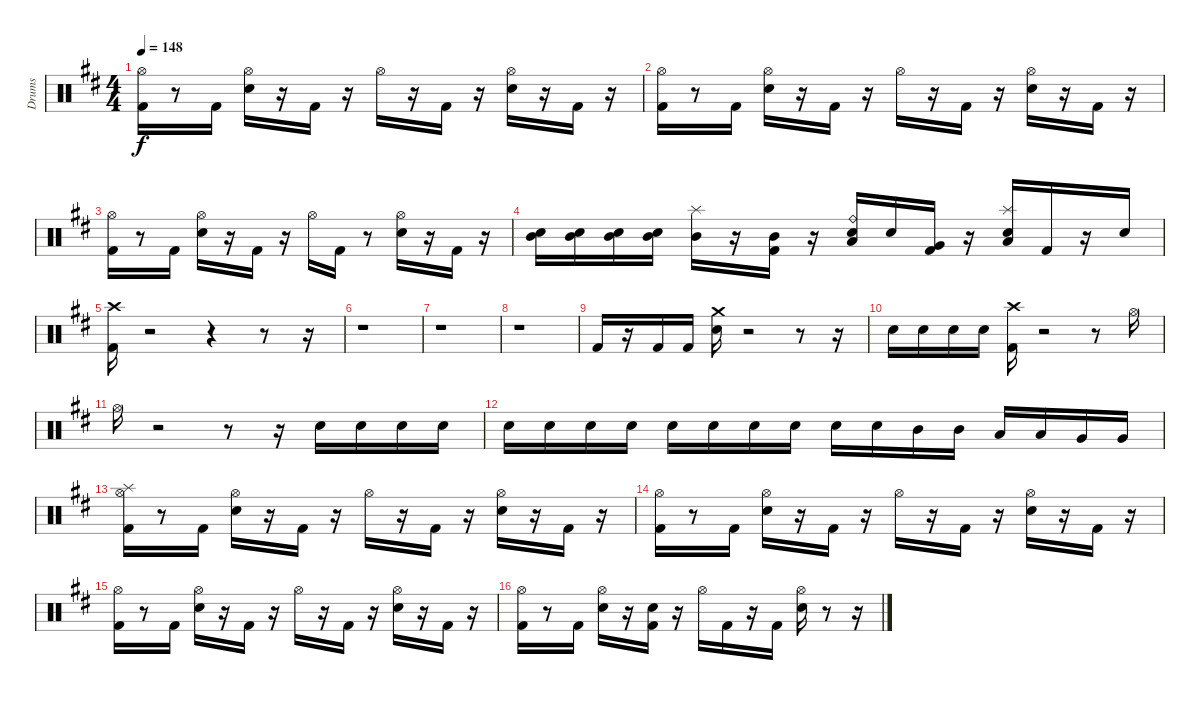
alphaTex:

\track ("Drums" "Drums") {instrument percussion}
\staff {score}
\articulation defaults
\ts (4 4)
\tempo 148
\clef neutral
\ks d
("Hi-Hat (open)" "Kick (hit) 2").16{dy f} r.8 "Kick (hit) 2".16 ("Hi-Hat (open)" "Snare (hit) 2").16 r.16 "Kick (hit) 2".16 r.16 "Hi-Hat (open)".16 r.16 "Kick (hit) 2".16 r.16 ("Hi-Hat (open)" "Snare (hit) 2").16 r.16 "Kick (hit) 2".16 r.16 |
("Hi-Hat (open)" "Kick (hit) 2").16 r.8 "Kick (hit) 2".16 ("Hi-Hat (open)" "Snare (hit) 2").16 r.16 "Kick (hit) 2".16 r.16 "Hi-Hat (open)".16 r.16 "Kick (hit) 2".16 r.16 ("Hi-Hat (open)" "Snare (hit) 2").16 r.16 "Kick (hit) 2".16 r.16 |
("Hi-Hat (open)" "Kick (hit) 2").16 r.8 "Kick (hit) 2".16 ("Hi-Hat (open)" "Snare (hit) 2").16 r.16 "Kick (hit) 2".16 r.16 "Hi-Hat (open)".16 "Kick (hit) 2".16 r.8 ("Hi-Hat (open)" "Snare (hit) 2").16 r.16 "Kick (hit) 2".16 r.16 |
("Mid Tom (hit)" "Snare (hit) 2").16 ("Mid Tom (hit)" "Snare (hit) 2").16 ("Mid Tom (hit)" "Snare (hit) 2").16 ("Mid Tom (hit)" "Snare (hit) 2").16 ("Mid Tom (hit)" "Splash (hit)").16 r.16 ("Mid Tom (hit)" "Kick (hit) 2").16 r.16 ("Ride (bell)" "Low Tom (hit)" "Snare (hit) 2").16 "Snare (hit) 2".16 ("Very Low Tom (hit)" "Kick (hit) 2").16 r.16 ("Low Floor Tom (hit)" "Splash (hit)" "Snare (hit) 2").16 "Kick (hit) 2".16 r.16 "Snare (hit) 2".16 |
("Crash high (hit)" "Kick (hit) 2").16 r.2 r.4 r.8 r.16 |
r.1 |
r.1 |
r.1 |
"Kick (hit) 2".16 r.16 "Kick (hit) 2".16 "Kick (hit) 2".16 ("Crash medium (hit)" "Snare (hit) 2").16 r.2 r.8 r.16 |
"Snare (hit) 2".16 "Snare (hit) 2".16 "Snare (hit) 2".16 "Snare (hit) 2".16 ("Crash high (hit)" "Kick (hit) 2").16 r.2 r.8 "Hi-Hat (open)".16 |
"Hi-Hat (open)".16 r.2 r.8 r.16 "Snare (hit) 2".16 "Snare (hit) 2".16 "Snare (hit) 2".16 "Snare (hit) 2".16 |
"Snare (hit) 2".16 "Snare (hit) 2".16 "Snare (hit) 2".16 "Snare (hit) 2".16 "Snare (hit) 2".16 "Snare (hit) 2".16 "Snare (hit) 2".16 "Snare (hit) 2".16 "Snare (hit) 2".16 "Snare (hit) 2".16 "Mid Tom (hit)".16 "Mid Tom (hit)".16 "Low Tom (hit)".16 "Low Tom (hit)".16 "Very Low Tom (hit)".16 "Very Low Tom (hit)".16 |
("Hi-Hat (open)" "Splash (hit)" "Kick (hit) 2").16 r.8 "Kick (hit) 2".16 ("Hi-Hat (open)" "Snare (hit) 2").16 r.16 "Kick (hit) 2".16 r.16 "Hi-Hat (open)".16 r.16 "Kick (hit) 2".16 r.16 ("Hi-Hat (open)" "Snare (hit) 2").16 r.16 "Kick (hit) 2".16 r.16 |
("Hi-Hat (open)" "Kick (hit) 2").16 r.8 "Kick (hit) 2".16 ("Hi-Hat (open)" "Snare (hit) 2").16 r.16 "Kick (hit) 2".16 r.16 "Hi-Hat (open)".16 r.16 "Kick (hit) 2".16 r.16 ("Hi-Hat (open)" "Snare (hit) 2").16 r.16 "Kick (hit) 2".16 r.16 |
("Hi-Hat (open)" "Kick (hit) 2").16 r.8 "Kick (hit) 2".16 ("Hi-Hat (open)" "Snare (hit) 2").16 r.16 "Kick (hit) 2".16 r.16 "Hi-Hat (open)".16 r.16 "Kick (hit) 2".16 r.16 ("Hi-Hat (open)" "Snare (hit) 2").16 r.16 "Kick (hit) 2".16 r.16 |
("Hi-Hat (open)" "Kick (hit) 2").16 r.8 "Kick (hit) 2".16 ("Hi-Hat (open)" "Snare (hit) 2").16 r.16 ("Kick (hit) 2" "Snare (hit) 2").16 r.16 "Hi-Hat (open)".16 "Kick (hit) 2".16 r.16 "Kick (hit) 2".16 ("Hi-Hat (open)" "Snare (hit) 2").16 r.8 r.16
